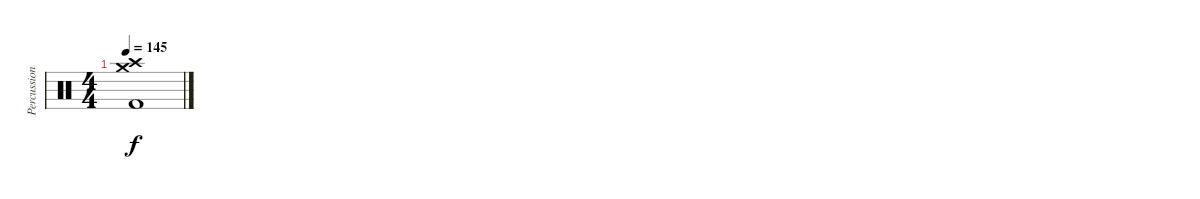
\track ("Percussion" "Percussion") {instrument percussion}
\staff {score}
\articulation defaults
\ts (4 4)
\tempo 145
\clef neutral
\ks c
("Kick (hit) 2" "Crash high (hit)" "Crash medium (hit)").1{dy f}
